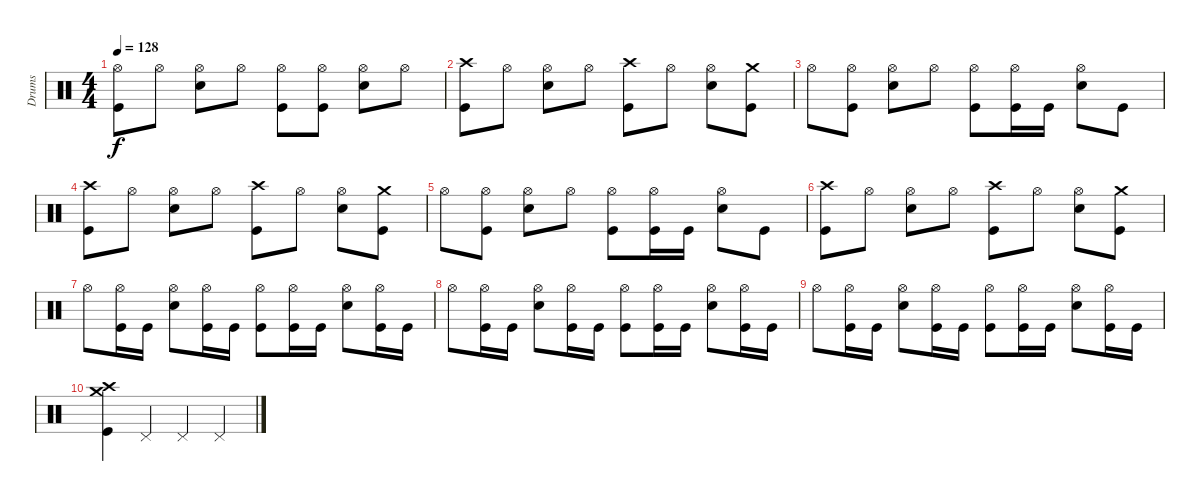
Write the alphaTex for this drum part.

\track ("Drums" "Drums") {instrument percussion}
\staff {score}
\articulation defaults
\ts (4 4)
\tempo 128
\clef neutral
\ks c
("Hi-Hat (open)" "Kick (hit)").8{dy f} "Hi-Hat (open)".8 ("Hi-Hat (open)" "Snare (hit) 2").8 "Hi-Hat (open)".8 ("Hi-Hat (open)" "Kick (hit)").8 ("Hi-Hat (open)" "Kick (hit)").8 ("Hi-Hat (open)" "Snare (hit) 2").8 "Hi-Hat (open)".8 |
("Crash high (hit)" "Kick (hit)").8 "Hi-Hat (open)".8 ("Hi-Hat (open)" "Snare (hit) 2").8 "Hi-Hat (open)".8 ("Crash high (hit)" "Kick (hit)").8 "Hi-Hat (open)".8 ("Hi-Hat (open)" "Snare (hit) 2").8 ("Crash medium (hit)" "Kick (hit)").8 |
"Hi-Hat (open)".8 ("Hi-Hat (open)" "Kick (hit)").8 ("Hi-Hat (open)" "Snare (hit) 2").8 "Hi-Hat (open)".8 ("Hi-Hat (open)" "Kick (hit)").8 ("Hi-Hat (open)" "Kick (hit)").16 "Kick (hit)".16 ("Hi-Hat (open)" "Snare (hit) 2").8 "Kick (hit)".8 |
("Crash high (hit)" "Kick (hit)").8 "Hi-Hat (open)".8 ("Hi-Hat (open)" "Snare (hit) 2").8 "Hi-Hat (open)".8 ("Crash high (hit)" "Kick (hit)").8 "Hi-Hat (open)".8 ("Hi-Hat (open)" "Snare (hit) 2").8 ("Crash medium (hit)" "Kick (hit)").8 |
"Hi-Hat (open)".8 ("Hi-Hat (open)" "Kick (hit)").8 ("Hi-Hat (open)" "Snare (hit) 2").8 "Hi-Hat (open)".8 ("Hi-Hat (open)" "Kick (hit)").8 ("Hi-Hat (open)" "Kick (hit)").16 "Kick (hit)".16 ("Hi-Hat (open)" "Snare (hit) 2").8 "Kick (hit)".8 |
("Crash high (hit)" "Kick (hit)").8 "Hi-Hat (open)".8 ("Hi-Hat (open)" "Snare (hit) 2").8 "Hi-Hat (open)".8 ("Crash high (hit)" "Kick (hit)").8 "Hi-Hat (open)".8 ("Hi-Hat (open)" "Snare (hit) 2").8 ("Crash medium (hit)" "Kick (hit)").8 |
"Hi-Hat (open)".8 ("Hi-Hat (open)" "Kick (hit)").16 "Kick (hit)".16 ("Hi-Hat (open)" "Snare (hit) 2").8 ("Hi-Hat (open)" "Kick (hit)").16 "Kick (hit)".16 ("Hi-Hat (open)" "Kick (hit)").8 ("Hi-Hat (open)" "Kick (hit)").16 "Kick (hit)".16 ("Hi-Hat (open)" "Snare (hit) 2").8 ("Hi-Hat (open)" "Kick (hit)").16 "Kick (hit)".16 |
"Hi-Hat (open)".8 ("Hi-Hat (open)" "Kick (hit)").16 "Kick (hit)".16 ("Hi-Hat (open)" "Snare (hit) 2").8 ("Hi-Hat (open)" "Kick (hit)").16 "Kick (hit)".16 ("Hi-Hat (open)" "Kick (hit)").8 ("Hi-Hat (open)" "Kick (hit)").16 "Kick (hit)".16 ("Hi-Hat (open)" "Snare (hit) 2").8 ("Hi-Hat (open)" "Kick (hit)").16 "Kick (hit)".16 |
"Hi-Hat (open)".8 ("Hi-Hat (open)" "Kick (hit)").16 "Kick (hit)".16 ("Hi-Hat (open)" "Snare (hit) 2").8 ("Hi-Hat (open)" "Kick (hit)").16 "Kick (hit)".16 ("Hi-Hat (open)" "Kick (hit)").8 ("Hi-Hat (open)" "Kick (hit)").16 "Kick (hit)".16 ("Hi-Hat (open)" "Snare (hit) 2").8 ("Hi-Hat (open)" "Kick (hit)").16 "Kick (hit)".16 |
("Crash high (hit)" "Crash medium (hit)" "Kick (hit)").4 "Pedal Hi-Hat (hit)".4 "Pedal Hi-Hat (hit)".4 "Pedal Hi-Hat (hit)".4
